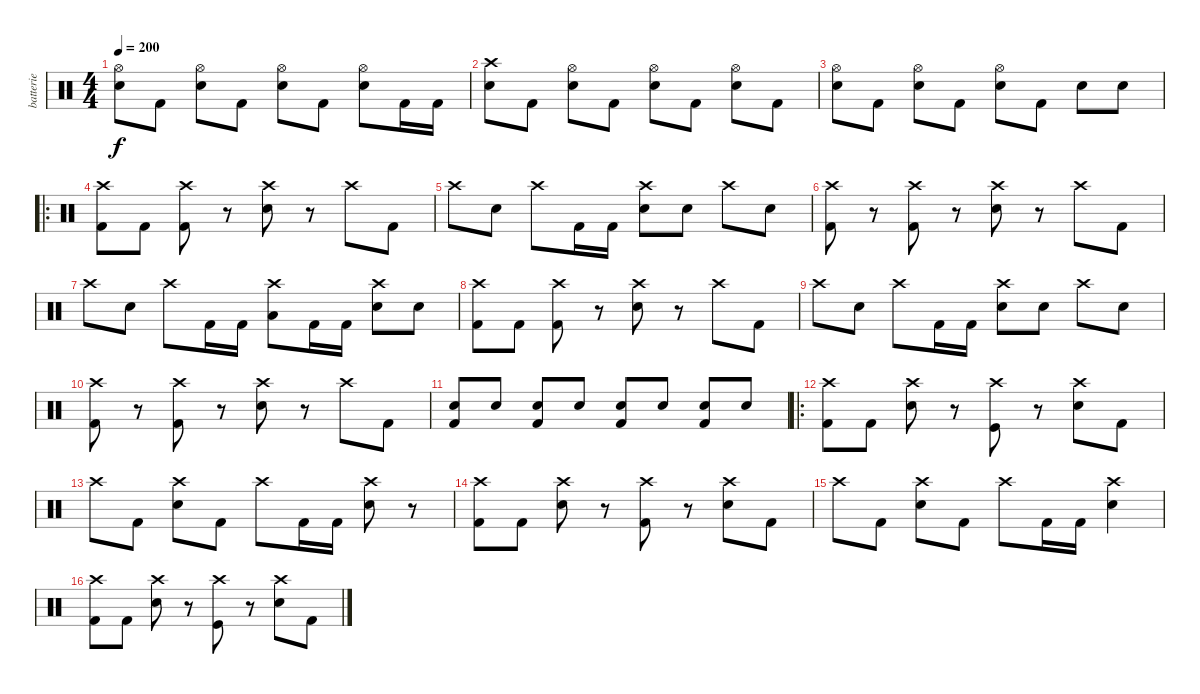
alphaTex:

\track ("batterie" "batterie") {instrument percussion}
\staff {score}
\articulation defaults
\ts (4 4)
\tempo 200
\clef neutral
\ks c
("Hi-Hat (open)" "Electric Snare (hit)").8{dy f} "Kick (hit) 2".8 ("Hi-Hat (open)" "Electric Snare (hit)").8 "Kick (hit) 2".8 ("Hi-Hat (open)" "Electric Snare (hit)").8 "Kick (hit) 2".8 ("Hi-Hat (open)" "Electric Snare (hit)").8 "Kick (hit) 2".16 "Kick (hit) 2".16 |
("Crash high (hit)" "Electric Snare (hit)").8 "Kick (hit) 2".8 ("Hi-Hat (open)" "Electric Snare (hit)").8 "Kick (hit) 2".8 ("Hi-Hat (open)" "Electric Snare (hit)").8 "Kick (hit) 2".8 ("Hi-Hat (open)" "Electric Snare (hit)").8 "Kick (hit) 2".8 |
("Hi-Hat (open)" "Electric Snare (hit)").8 "Kick (hit) 2".8 ("Hi-Hat (open)" "Electric Snare (hit)").8 "Kick (hit) 2".8 ("Hi-Hat (open)" "Electric Snare (hit)").8 "Kick (hit) 2".8 "Electric Snare (hit)".8 "Electric Snare (hit)".8 |
\ro
("Crash high (hit)" "Kick (hit) 2").8 "Kick (hit) 2".8 ("Crash high (hit)" "Kick (hit) 2").8 r.8 ("Crash high (hit)" "Electric Snare (hit)").8 r.8 "Crash high (hit)".8 "Kick (hit) 2".8 |
"Crash high (hit)".8 "Electric Snare (hit)".8 "Crash high (hit)".8 "Kick (hit) 2".16 "Kick (hit) 2".16 ("Crash high (hit)" "Electric Snare (hit)").8 "Electric Snare (hit)".8 "Crash high (hit)".8 "Electric Snare (hit)".8 |
("Crash high (hit)" "Kick (hit) 2").8 r.8 ("Crash high (hit)" "Kick (hit) 2").8 r.8 ("Crash high (hit)" "Electric Snare (hit)").8 r.8 "Crash high (hit)".8 "Kick (hit) 2".8 |
"Crash high (hit)".8 "Electric Snare (hit)".8 "Crash high (hit)".8 "Kick (hit) 2".16 "Kick (hit) 2".16 ("Crash high (hit)" "Low Tom (hit)").8 "Kick (hit) 2".16 "Kick (hit) 2".16 ("Crash high (hit)" "Electric Snare (hit)").8 "Electric Snare (hit)".8 |
("Crash high (hit)" "Kick (hit) 2").8 "Kick (hit) 2".8 ("Crash high (hit)" "Kick (hit) 2").8 r.8 ("Crash high (hit)" "Electric Snare (hit)").8 r.8 "Crash high (hit)".8 "Kick (hit) 2".8 |
"Crash high (hit)".8 "Electric Snare (hit)".8 "Crash high (hit)".8 "Kick (hit) 2".16 "Kick (hit) 2".16 ("Crash high (hit)" "Electric Snare (hit)").8 "Electric Snare (hit)".8 "Crash high (hit)".8 "Electric Snare (hit)".8 |
("Crash high (hit)" "Kick (hit) 2").8 r.8 ("Crash high (hit)" "Kick (hit) 2").8 r.8 ("Crash high (hit)" "Electric Snare (hit)").8 r.8 "Crash high (hit)".8 "Kick (hit) 2".8 |
("Kick (hit) 2" "Electric Snare (hit)").8 "Electric Snare (hit)".8 ("Kick (hit) 2" "Electric Snare (hit)").8 "Electric Snare (hit)".8 ("Kick (hit) 2" "Electric Snare (hit)").8 "Electric Snare (hit)".8 ("Kick (hit) 2" "Electric Snare (hit)").8 "Electric Snare (hit)".8 |
\ro
("Crash high (hit)" "Kick (hit) 2").8 "Kick (hit) 2".8 ("Crash high (hit)" "Electric Snare (hit)").8 r.8 ("Crash high (hit)" "Kick (hit)").8 r.8 ("Crash high (hit)" "Electric Snare (hit)").8 "Kick (hit) 2".8 |
"Crash high (hit)".8 "Kick (hit) 2".8 ("Crash high (hit)" "Electric Snare (hit)").8 "Kick (hit) 2".8 "Crash high (hit)".8 "Kick (hit) 2".16 "Kick (hit) 2".16 ("Crash high (hit)" "Electric Snare (hit)").8 r.8 |
("Crash high (hit)" "Kick (hit) 2").8 "Kick (hit) 2".8 ("Crash high (hit)" "Electric Snare (hit)").8 r.8 ("Crash high (hit)" "Kick (hit) 2").8 r.8 ("Crash high (hit)" "Electric Snare (hit)").8 "Kick (hit) 2".8 |
"Crash high (hit)".8 "Kick (hit) 2".8 ("Crash high (hit)" "Electric Snare (hit)").8 "Kick (hit) 2".8 "Crash high (hit)".8 "Kick (hit) 2".16 "Kick (hit) 2".16 ("Crash high (hit)" "Electric Snare (hit)").4 |
("Crash high (hit)" "Kick (hit) 2").8 "Kick (hit) 2".8 ("Crash high (hit)" "Electric Snare (hit)").8 r.8 ("Crash high (hit)" "Kick (hit)").8 r.8 ("Crash high (hit)" "Electric Snare (hit)").8 "Kick (hit) 2".8
